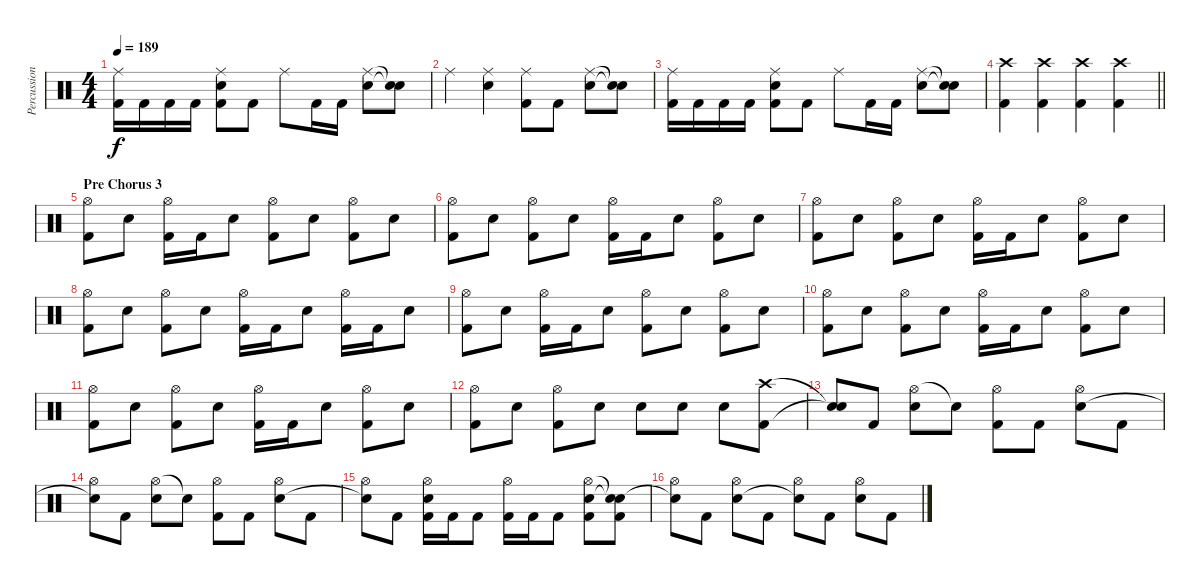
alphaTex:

\track ("Percussion" "Percussion") {instrument percussion}
\staff {score}
\articulation defaults
\ts (4 4)
\tempo 189
\clef neutral
\ks c
("Ride (middle)" "Kick (hit) 2").16{dy f} "Kick (hit) 2".16 "Kick (hit) 2".16 "Kick (hit) 2".16 ("Ride (middle)" "Electric Snare (hit)" "Kick (hit) 2").8 "Kick (hit) 2".8 "Ride (middle)".8 "Kick (hit) 2".16 "Kick (hit) 2".16 ("Ride (middle)" "Electric Snare (hit)").8 ("Snare (hit)"{t} "Snare (hit)"{t}).8 |
"Ride (middle)".4 ("Ride (middle)" "Electric Snare (hit)").4 ("Ride (middle)" "Kick (hit) 2").8 "Kick (hit) 2".8 ("Ride (middle)" "Electric Snare (hit)").8 ("Snare (hit)"{t} "Snare (hit)"{t}).8 |
("Ride (middle)" "Kick (hit) 2").16 "Kick (hit) 2".16 "Kick (hit) 2".16 "Kick (hit) 2".16 ("Ride (middle)" "Electric Snare (hit)" "Kick (hit) 2").8 "Kick (hit) 2".8 "Ride (middle)".8 "Kick (hit) 2".16 "Kick (hit) 2".16 ("Ride (middle)" "Electric Snare (hit)").8 ("Snare (hit)"{t} "Snare (hit)"{t}).8 |
\barLineRight lightlight
("Crash high (hit)" "Kick (hit) 2").4 ("Crash high (hit)" "Kick (hit) 2").4 ("Crash high (hit)" "Kick (hit) 2").4 ("Crash high (hit)" "Kick (hit) 2").4 |
\section ("" "Pre Chorus 3")
("Hi-Hat (open)" "Kick (hit) 2").8 "Electric Snare (hit)".8 ("Hi-Hat (open)" "Kick (hit) 2").16 "Kick (hit) 2".16 "Electric Snare (hit)".8 ("Hi-Hat (open)" "Kick (hit) 2").8 "Electric Snare (hit)".8 ("Hi-Hat (open)" "Kick (hit) 2").8 "Electric Snare (hit)".8 |
("Hi-Hat (open)" "Kick (hit) 2").8 "Electric Snare (hit)".8 ("Hi-Hat (open)" "Kick (hit) 2").8 "Electric Snare (hit)".8 ("Hi-Hat (open)" "Kick (hit) 2").16 "Kick (hit) 2".16 "Electric Snare (hit)".8 ("Hi-Hat (open)" "Kick (hit) 2").8 "Electric Snare (hit)".8 |
("Hi-Hat (open)" "Kick (hit) 2").8 "Electric Snare (hit)".8 ("Hi-Hat (open)" "Kick (hit) 2").8 "Electric Snare (hit)".8 ("Hi-Hat (open)" "Kick (hit) 2").16 "Kick (hit) 2".16 "Electric Snare (hit)".8 ("Hi-Hat (open)" "Kick (hit) 2").8 "Electric Snare (hit)".8 |
("Hi-Hat (open)" "Kick (hit) 2").8 "Electric Snare (hit)".8 ("Hi-Hat (open)" "Kick (hit) 2").8 "Electric Snare (hit)".8 ("Hi-Hat (open)" "Kick (hit) 2").16 "Kick (hit) 2".16 "Electric Snare (hit)".8 ("Hi-Hat (open)" "Kick (hit) 2").16 "Kick (hit) 2".16 "Electric Snare (hit)".8 |
("Hi-Hat (open)" "Kick (hit) 2").8 "Electric Snare (hit)".8 ("Hi-Hat (open)" "Kick (hit) 2").16 "Kick (hit) 2".16 "Electric Snare (hit)".8 ("Hi-Hat (open)" "Kick (hit) 2").8 "Electric Snare (hit)".8 ("Hi-Hat (open)" "Kick (hit) 2").8 "Electric Snare (hit)".8 |
("Hi-Hat (open)" "Kick (hit) 2").8 "Electric Snare (hit)".8 ("Hi-Hat (open)" "Kick (hit) 2").8 "Electric Snare (hit)".8 ("Hi-Hat (open)" "Kick (hit) 2").16 "Kick (hit) 2".16 "Electric Snare (hit)".8 ("Hi-Hat (open)" "Kick (hit) 2").8 "Electric Snare (hit)".8 |
("Hi-Hat (open)" "Kick (hit) 2").8 "Electric Snare (hit)".8 ("Hi-Hat (open)" "Kick (hit) 2").8 "Electric Snare (hit)".8 ("Hi-Hat (open)" "Kick (hit) 2").16 "Kick (hit) 2".16 "Electric Snare (hit)".8 ("Hi-Hat (open)" "Kick (hit) 2").8 "Electric Snare (hit)".8 |
("Hi-Hat (open)" "Kick (hit) 2").8 "Electric Snare (hit)".8 ("Hi-Hat (open)" "Kick (hit) 2").8 "Electric Snare (hit)".8 "Electric Snare (hit)".8 "Electric Snare (hit)".8 "Electric Snare (hit)".8 ("Crash high (hit)" "Kick (hit) 2").8 |
("Snare (hit)"{t} "Snare (hit)"{t}).8 "Kick (hit) 2".8 ("Hi-Hat (open)" "Electric Snare (hit)").8 "Snare (hit)"{t}.8 ("Hi-Hat (open)" "Kick (hit) 2").8 "Kick (hit) 2".8 ("Hi-Hat (open)" "Electric Snare (hit)").8 "Kick (hit) 2".8 |
("Hi-Hat (open)" "Snare (hit)"{t}).8 "Kick (hit) 2".8 ("Hi-Hat (open)" "Electric Snare (hit)").8 "Snare (hit)"{t}.8 ("Hi-Hat (open)" "Kick (hit) 2").8 "Kick (hit) 2".8 ("Hi-Hat (open)" "Electric Snare (hit)").8 "Kick (hit) 2".8 |
("Hi-Hat (open)" "Snare (hit)"{t}).8 "Kick (hit) 2".8 ("Hi-Hat (open)" "Electric Snare (hit)" "Kick (hit) 2").16 "Kick (hit) 2".16 "Kick (hit) 2".8 ("Hi-Hat (open)" "Kick (hit) 2").16 "Kick (hit) 2".16 "Kick (hit) 2".8 ("Hi-Hat (open)" "Electric Snare (hit)" "Kick (hit) 2").8 ("Snare (hit)"{t} "Snare (hit)"{t} "Kick (hit) 2").8 |
("Hi-Hat (open)" "Snare (hit)"{t}).8 "Kick (hit) 2".8 ("Hi-Hat (open)" "Electric Snare (hit)").8 "Kick (hit) 2".8 ("Hi-Hat (open)" "Snare (hit)"{t}).8 "Kick (hit) 2".8 ("Hi-Hat (open)" "Electric Snare (hit)").8 "Kick (hit) 2".8
